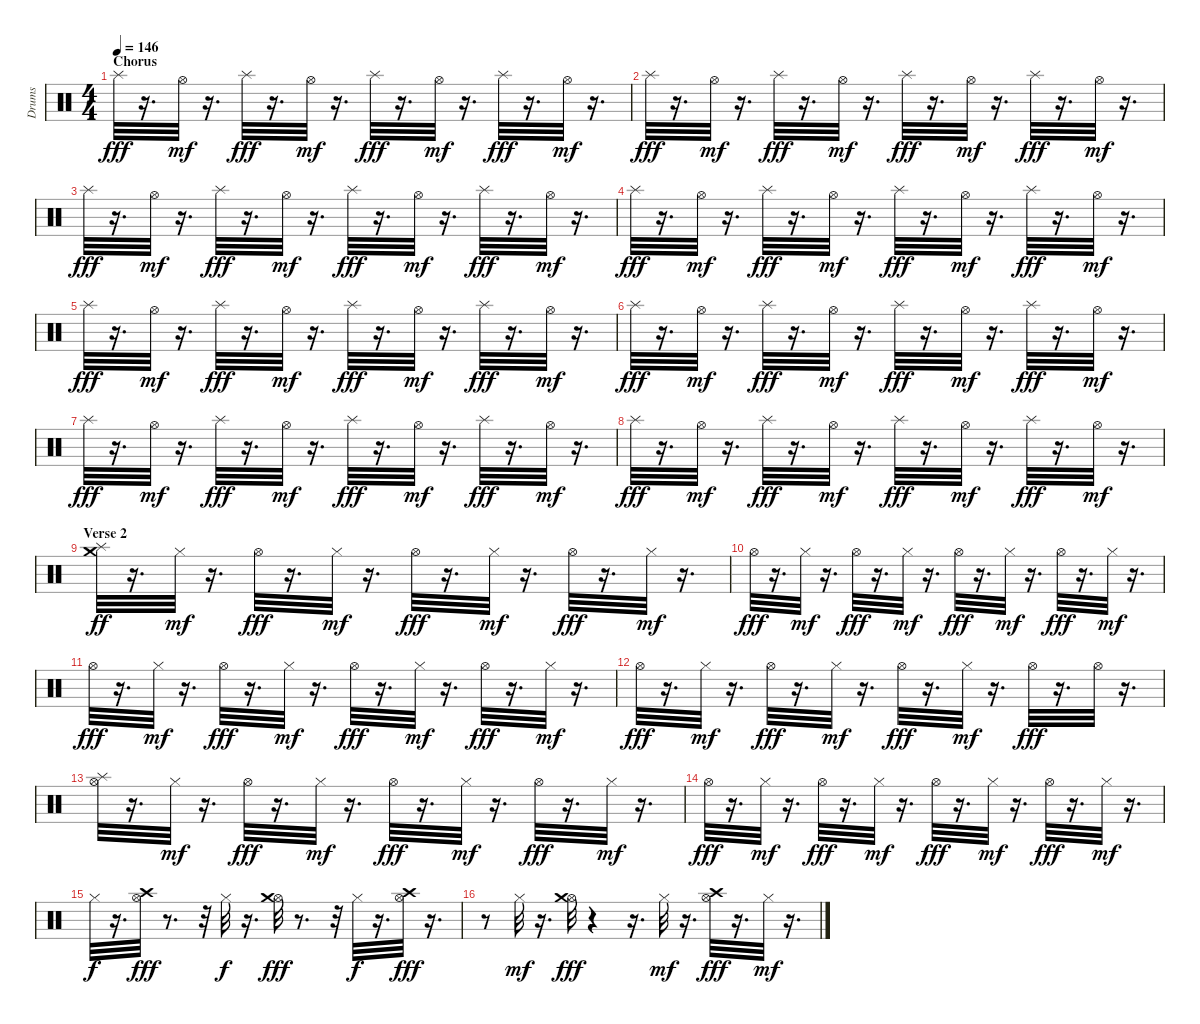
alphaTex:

\track ("Drums" "Drums") {instrument percussion}
\staff {score}
\articulation defaults
\ts (4 4)
\section ("" "Chorus")
\tempo 146
\clef neutral
\ks c "Splash (hit)".32{dy fff}
r.16{d} "Hi-Hat (open)".32{dy mf} r.16{d} "Splash (hit)".32{dy fff} r.16{d} "Hi-Hat (open)".32{dy mf} r.16{d} "Splash (hit)".32{dy fff} r.16{d} "Hi-Hat (open)".32{dy mf} r.16{d} "Splash (hit)".32{dy fff} r.16{d} "Hi-Hat (open)".32{dy mf} r.16{d} |
"Splash (hit)".32{dy fff} r.16{d} "Hi-Hat (open)".32{dy mf} r.16{d} "Splash (hit)".32{dy fff} r.16{d} "Hi-Hat (open)".32{dy mf} r.16{d} "Splash (hit)".32{dy fff} r.16{d} "Hi-Hat (open)".32{dy mf} r.16{d} "Splash (hit)".32{dy fff} r.16{d} "Hi-Hat (open)".32{dy mf} r.16{d} |
"Splash (hit)".32{dy fff} r.16{d} "Hi-Hat (open)".32{dy mf} r.16{d} "Splash (hit)".32{dy fff} r.16{d} "Hi-Hat (open)".32{dy mf} r.16{d} "Splash (hit)".32{dy fff} r.16{d} "Hi-Hat (open)".32{dy mf} r.16{d} "Splash (hit)".32{dy fff} r.16{d} "Hi-Hat (open)".32{dy mf} r.16{d} |
"Splash (hit)".32{dy fff} r.16{d} "Hi-Hat (open)".32{dy mf} r.16{d} "Splash (hit)".32{dy fff} r.16{d} "Hi-Hat (open)".32{dy mf} r.16{d} "Splash (hit)".32{dy fff} r.16{d} "Hi-Hat (open)".32{dy mf} r.16{d} "Splash (hit)".32{dy fff} r.16{d} "Hi-Hat (open)".32{dy mf} r.16{d} |
"Splash (hit)".32{dy fff} r.16{d} "Hi-Hat (open)".32{dy mf} r.16{d} "Splash (hit)".32{dy fff} r.16{d} "Hi-Hat (open)".32{dy mf} r.16{d} "Splash (hit)".32{dy fff} r.16{d} "Hi-Hat (open)".32{dy mf} r.16{d} "Splash (hit)".32{dy fff} r.16{d} "Hi-Hat (open)".32{dy mf} r.16{d} |
"Splash (hit)".32{dy fff} r.16{d} "Hi-Hat (open)".32{dy mf} r.16{d} "Splash (hit)".32{dy fff} r.16{d} "Hi-Hat (open)".32{dy mf} r.16{d} "Splash (hit)".32{dy fff} r.16{d} "Hi-Hat (open)".32{dy mf} r.16{d} "Splash (hit)".32{dy fff} r.16{d} "Hi-Hat (open)".32{dy mf} r.16{d} |
"Splash (hit)".32{dy fff} r.16{d} "Hi-Hat (open)".32{dy mf} r.16{d} "Splash (hit)".32{dy fff} r.16{d} "Hi-Hat (open)".32{dy mf} r.16{d} "Splash (hit)".32{dy fff} r.16{d} "Hi-Hat (open)".32{dy mf} r.16{d} "Splash (hit)".32{dy fff} r.16{d} "Hi-Hat (open)".32{dy mf} r.16{d} |
"Splash (hit)".32{dy fff} r.16{d} "Hi-Hat (open)".32{dy mf} r.16{d} "Splash (hit)".32{dy fff} r.16{d} "Hi-Hat (open)".32{dy mf} r.16{d} "Splash (hit)".32{dy fff} r.16{d} "Hi-Hat (open)".32{dy mf} r.16{d} "Splash (hit)".32{dy fff} r.16{d} "Hi-Hat (open)".32{dy mf} r.16{d} |
\section ("" "Verse 2")
("Crash medium (hit)" "Splash (hit)").32{dy ff} r.16{d} "Hi-Hat (closed)".32{dy mf} r.16{d} "Hi-Hat (open)".32{dy fff} r.16{d} "Hi-Hat (closed)".32{dy mf} r.16{d} "Hi-Hat (open)".32{dy fff} r.16{d} "Hi-Hat (closed)".32{dy mf} r.16{d} "Hi-Hat (open)".32{dy fff} r.16{d} "Hi-Hat (closed)".32{dy mf} r.16{d} |
"Hi-Hat (open)".32{dy fff} r.16{d} "Hi-Hat (closed)".32{dy mf} r.16{d} "Hi-Hat (open)".32{dy fff} r.16{d} "Hi-Hat (closed)".32{dy mf} r.16{d} "Hi-Hat (open)".32{dy fff} r.16{d} "Hi-Hat (closed)".32{dy mf} r.16{d} "Hi-Hat (open)".32{dy fff} r.16{d} "Hi-Hat (closed)".32{dy mf} r.16{d} |
"Hi-Hat (open)".32{dy fff} r.16{d} "Hi-Hat (closed)".32{dy mf} r.16{d} "Hi-Hat (open)".32{dy fff} r.16{d} "Hi-Hat (closed)".32{dy mf} r.16{d} "Hi-Hat (open)".32{dy fff} r.16{d} "Hi-Hat (closed)".32{dy mf} r.16{d} "Hi-Hat (open)".32{dy fff} r.16{d} "Hi-Hat (closed)".32{dy mf} r.16{d} |
"Hi-Hat (open)".32{dy fff} r.16{d} "Hi-Hat (closed)".32{dy mf} r.16{d} "Hi-Hat (open)".32{dy fff} r.16{d} "Hi-Hat (closed)".32{dy mf} r.16{d} "Hi-Hat (open)".32{dy fff} r.16{d} "Hi-Hat (closed)".32{dy mf} r.16{d} "Hi-Hat (open)".32{dy fff} r.16{d} "Hi-Hat (open)".32 r.16{d} |
("Hi-Hat (open)" "Splash (hit)").32 r.16{d} "Hi-Hat (closed)".32{dy mf} r.16{d} "Hi-Hat (open)".32{dy fff} r.16{d} "Hi-Hat (closed)".32{dy mf} r.16{d} "Hi-Hat (open)".32{dy fff} r.16{d} "Hi-Hat (closed)".32{dy mf} r.16{d} "Hi-Hat (open)".32{dy fff} r.16{d} "Hi-Hat (closed)".32{dy mf} r.16{d} |
"Hi-Hat (open)".32{dy fff} r.16{d} "Hi-Hat (closed)".32{dy mf} r.16{d} "Hi-Hat (open)".32{dy fff} r.16{d} "Hi-Hat (closed)".32{dy mf} r.16{d} "Hi-Hat (open)".32{dy fff} r.16{d} "Hi-Hat (closed)".32{dy mf} r.16{d} "Hi-Hat (open)".32{dy fff} r.16{d} "Hi-Hat (closed)".32{dy mf} r.16{d} |
"Hi-Hat (closed)".32{dy f} r.16{d} ("Hi-Hat (open)" "Crash high (hit)").32{dy fff} r.8{d} r.32 "Hi-Hat (closed)".32{dy f} r.16{d} ("Hi-Hat (open)" "Crash medium (hit)").32{dy fff} r.8{d} r.32 "Hi-Hat (closed)".32{dy f} r.16{d} ("Hi-Hat (open)" "Crash high (hit)").32{dy fff} r.16{d} |
r.8 "Hi-Hat (closed)".32{dy mf} r.16{d} ("Hi-Hat (open)" "Crash medium (hit)").32{dy fff} r.4 r.16{d} "Hi-Hat (closed)".32{dy mf} r.16{d} ("Hi-Hat (open)" "Crash high (hit)").32{dy fff} r.16{d} "Hi-Hat (closed)".32{dy mf} r.16{d}
